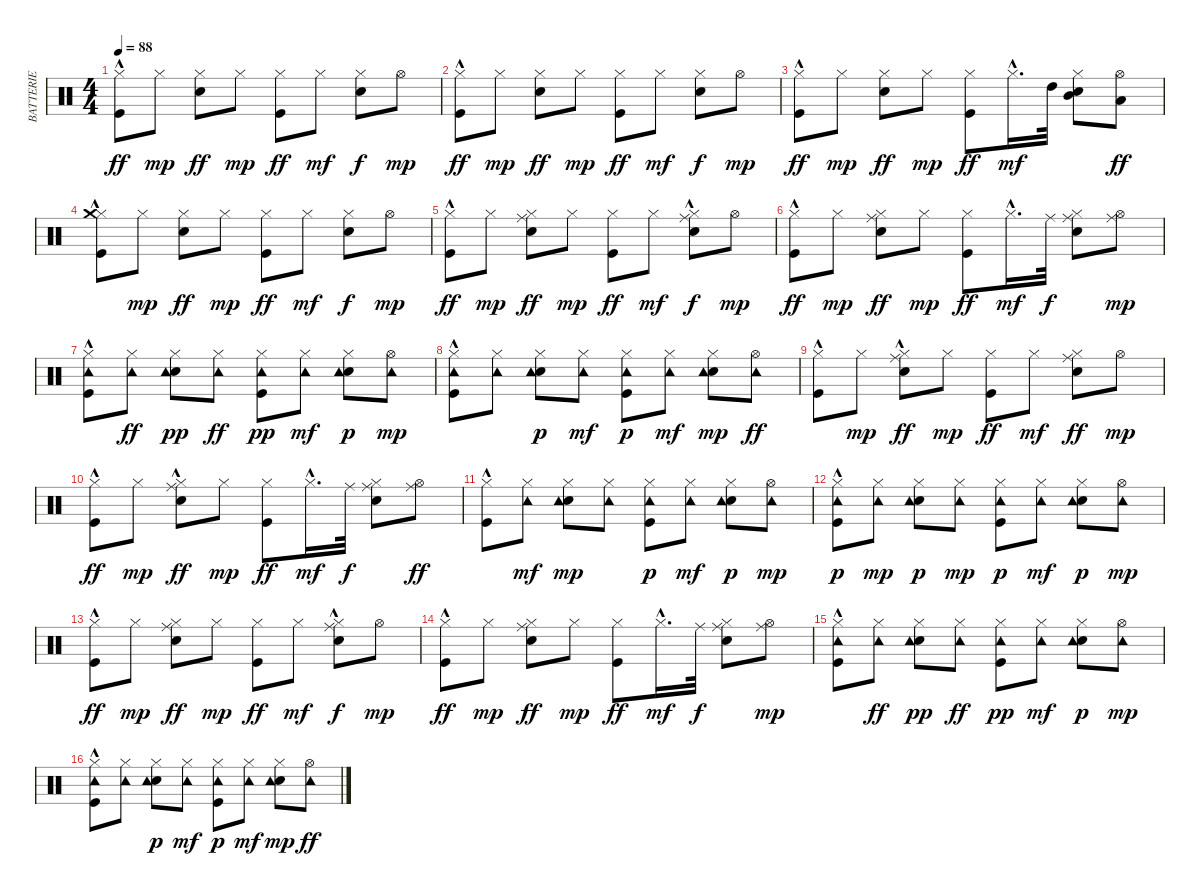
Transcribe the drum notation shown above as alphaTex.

\track ("BATTERIE" "BATTERIE") {instrument percussion}
\staff {score}
\articulation defaults
\ts (4 4)
\tempo 88
\clef neutral
\ks c
("Kick (hit)"{hac} "Hi-Hat (closed)").8{dy ff} "Hi-Hat (closed)".8{dy mp} ("Electric Snare (hit)" "Hi-Hat (closed)").8{dy ff} "Hi-Hat (closed)".8{dy mp} ("Kick (hit)" "Hi-Hat (closed)").8{dy ff} "Hi-Hat (closed)".8{dy mf} ("Electric Snare (hit)" "Hi-Hat (closed)").8{dy f} "Hi-Hat (open)".8{dy mp} |
("Kick (hit)"{hac} "Hi-Hat (closed)").8{dy ff} "Hi-Hat (closed)".8{dy mp} ("Electric Snare (hit)" "Hi-Hat (closed)").8{dy ff} "Hi-Hat (closed)".8{dy mp} ("Kick (hit)" "Hi-Hat (closed)").8{dy ff} "Hi-Hat (closed)".8{dy mf} ("Electric Snare (hit)" "Hi-Hat (closed)").8{dy f} "Hi-Hat (open)".8{dy mp} |
("Kick (hit)"{hac} "Hi-Hat (closed)").8{dy ff} "Hi-Hat (closed)".8{dy mp} ("Electric Snare (hit)" "Hi-Hat (closed)").8{dy ff} "Hi-Hat (closed)".8{dy mp} ("Kick (hit)" "Hi-Hat (closed)").8{dy ff} "Hi-Hat (closed)"{hac}.16{d dy mf} "High Tom (hit)".32 ("Electric Snare (hit)" "Hi-Hat (closed)" "Mid Tom (hit)").8 ("Hi-Hat (open)" "Low Tom (hit)").8{dy ff} |
("Kick (hit)"{hac} "Hi-Hat (closed)" "Crash medium (hit)"{hac}).8 "Hi-Hat (closed)".8{dy mp} ("Electric Snare (hit)" "Hi-Hat (closed)").8{dy ff} "Hi-Hat (closed)".8{dy mp} ("Kick (hit)" "Hi-Hat (closed)").8{dy ff} "Hi-Hat (closed)".8{dy mf} ("Electric Snare (hit)" "Hi-Hat (closed)").8{dy f} "Hi-Hat (open)".8{dy mp} |
("Kick (hit)"{hac} "Hi-Hat (closed)").8{dy ff} "Hi-Hat (closed)".8{dy mp} ("Electric Snare (hit)" "Hi-Hat (closed)" "Ride (middle)").8{dy ff} "Hi-Hat (closed)".8{dy mp} ("Kick (hit)" "Hi-Hat (closed)").8{dy ff} "Hi-Hat (closed)".8{dy mf} ("Electric Snare (hit)" "Hi-Hat (closed)" "Ride (middle)"{hac}).8{dy f} "Hi-Hat (open)".8{dy mp} |
("Kick (hit)"{hac} "Hi-Hat (closed)").8{dy ff} "Hi-Hat (closed)".8{dy mp} ("Electric Snare (hit)" "Hi-Hat (closed)" "Ride (middle)").8{dy ff} "Hi-Hat (closed)".8{dy mp} ("Kick (hit)" "Hi-Hat (closed)").8{dy ff} "Hi-Hat (closed)"{hac}.16{d dy mf} "Ride (middle)".32{dy f} ("Electric Snare (hit)" "Hi-Hat (closed)" "Ride (middle)").8 ("Hi-Hat (open)" "Ride (middle)").8{dy mp} |
("Kick (hit)"{hac} "Hi-Hat (closed)" "Tambourine (hit)").8 ("Hi-Hat (closed)" "Tambourine (hit)").8{dy ff} ("Electric Snare (hit)" "Hi-Hat (closed)" "Tambourine (hit)").8{dy pp} ("Hi-Hat (closed)" "Tambourine (hit)").8{dy ff} ("Kick (hit)" "Hi-Hat (closed)" "Tambourine (hit)").8{dy pp} ("Hi-Hat (closed)" "Tambourine (hit)").8{dy mf} ("Electric Snare (hit)" "Hi-Hat (closed)" "Tambourine (hit)").8{dy p} ("Hi-Hat (open)" "Tambourine (hit)").8{dy mp} |
("Kick (hit)"{hac} "Hi-Hat (closed)" "Tambourine (hit)").8 ("Hi-Hat (closed)" "Tambourine (hit)").8 ("Electric Snare (hit)" "Hi-Hat (closed)" "Tambourine (hit)").8{dy p} ("Hi-Hat (closed)" "Tambourine (hit)").8{dy mf} ("Kick (hit)" "Hi-Hat (closed)" "Tambourine (hit)").8{dy p} ("Hi-Hat (closed)" "Tambourine (hit)").8{dy mf} ("Electric Snare (hit)" "Hi-Hat (closed)" "Tambourine (hit)").8{dy mp} ("Hi-Hat (open)" "Tambourine (hit)").8{dy ff} |
("Kick (hit)"{hac} "Hi-Hat (closed)").8 "Hi-Hat (closed)".8{dy mp} ("Electric Snare (hit)" "Hi-Hat (closed)" "Ride (middle)"{hac}).8{dy ff} "Hi-Hat (closed)".8{dy mp} ("Kick (hit)" "Hi-Hat (closed)").8{dy ff} "Hi-Hat (closed)".8{dy mf} ("Electric Snare (hit)" "Hi-Hat (closed)" "Ride (middle)").8{dy ff} "Hi-Hat (open)".8{dy mp} |
("Kick (hit)"{hac} "Hi-Hat (closed)").8{dy ff} "Hi-Hat (closed)".8{dy mp} ("Electric Snare (hit)" "Hi-Hat (closed)" "Ride (middle)"{hac}).8{dy ff} "Hi-Hat (closed)".8{dy mp} ("Kick (hit)" "Hi-Hat (closed)").8{dy ff} "Hi-Hat (closed)"{hac}.16{d dy mf} "Ride (middle)".32{dy f} ("Electric Snare (hit)" "Hi-Hat (closed)" "Ride (middle)").8 ("Hi-Hat (open)" "Ride (middle)").8{dy ff} |
("Kick (hit)"{hac} "Hi-Hat (closed)").8 ("Hi-Hat (closed)" "Tambourine (hit)").8{dy mf} ("Electric Snare (hit)" "Hi-Hat (closed)" "Tambourine (hit)").8{dy mp} ("Hi-Hat (closed)" "Tambourine (hit)").8 ("Kick (hit)" "Hi-Hat (closed)" "Tambourine (hit)").8{dy p} ("Hi-Hat (closed)" "Tambourine (hit)").8{dy mf} ("Electric Snare (hit)" "Hi-Hat (closed)" "Tambourine (hit)").8{dy p} ("Hi-Hat (open)" "Tambourine (hit)").8{dy mp} |
("Kick (hit)"{hac} "Hi-Hat (closed)" "Tambourine (hit)").8{dy p} ("Hi-Hat (closed)" "Tambourine (hit)").8{dy mp} ("Electric Snare (hit)" "Hi-Hat (closed)" "Tambourine (hit)").8{dy p} ("Hi-Hat (closed)" "Tambourine (hit)").8{dy mp} ("Kick (hit)" "Hi-Hat (closed)" "Tambourine (hit)").8{dy p} ("Hi-Hat (closed)" "Tambourine (hit)").8{dy mf} ("Electric Snare (hit)" "Hi-Hat (closed)" "Tambourine (hit)").8{dy p} ("Hi-Hat (open)" "Tambourine (hit)").8{dy mp} |
("Kick (hit)"{hac} "Hi-Hat (closed)").8{dy ff} "Hi-Hat (closed)".8{dy mp} ("Electric Snare (hit)" "Hi-Hat (closed)" "Ride (middle)").8{dy ff} "Hi-Hat (closed)".8{dy mp} ("Kick (hit)" "Hi-Hat (closed)").8{dy ff} "Hi-Hat (closed)".8{dy mf} ("Electric Snare (hit)" "Hi-Hat (closed)" "Ride (middle)"{hac}).8{dy f} "Hi-Hat (open)".8{dy mp} |
("Kick (hit)"{hac} "Hi-Hat (closed)").8{dy ff} "Hi-Hat (closed)".8{dy mp} ("Electric Snare (hit)" "Hi-Hat (closed)" "Ride (middle)").8{dy ff} "Hi-Hat (closed)".8{dy mp} ("Kick (hit)" "Hi-Hat (closed)").8{dy ff} "Hi-Hat (closed)"{hac}.16{d dy mf} "Ride (middle)".32{dy f} ("Electric Snare (hit)" "Hi-Hat (closed)" "Ride (middle)").8 ("Hi-Hat (open)" "Ride (middle)").8{dy mp} |
("Kick (hit)"{hac} "Hi-Hat (closed)" "Tambourine (hit)").8 ("Hi-Hat (closed)" "Tambourine (hit)").8{dy ff} ("Electric Snare (hit)" "Hi-Hat (closed)" "Tambourine (hit)").8{dy pp} ("Hi-Hat (closed)" "Tambourine (hit)").8{dy ff} ("Kick (hit)" "Hi-Hat (closed)" "Tambourine (hit)").8{dy pp} ("Hi-Hat (closed)" "Tambourine (hit)").8{dy mf} ("Electric Snare (hit)" "Hi-Hat (closed)" "Tambourine (hit)").8{dy p} ("Hi-Hat (open)" "Tambourine (hit)").8{dy mp} |
("Kick (hit)"{hac} "Hi-Hat (closed)" "Tambourine (hit)").8 ("Hi-Hat (closed)" "Tambourine (hit)").8 ("Electric Snare (hit)" "Hi-Hat (closed)" "Tambourine (hit)").8{dy p} ("Hi-Hat (closed)" "Tambourine (hit)").8{dy mf} ("Kick (hit)" "Hi-Hat (closed)" "Tambourine (hit)").8{dy p} ("Hi-Hat (closed)" "Tambourine (hit)").8{dy mf} ("Electric Snare (hit)" "Hi-Hat (closed)" "Tambourine (hit)").8{dy mp} ("Hi-Hat (open)" "Tambourine (hit)").8{dy ff}
